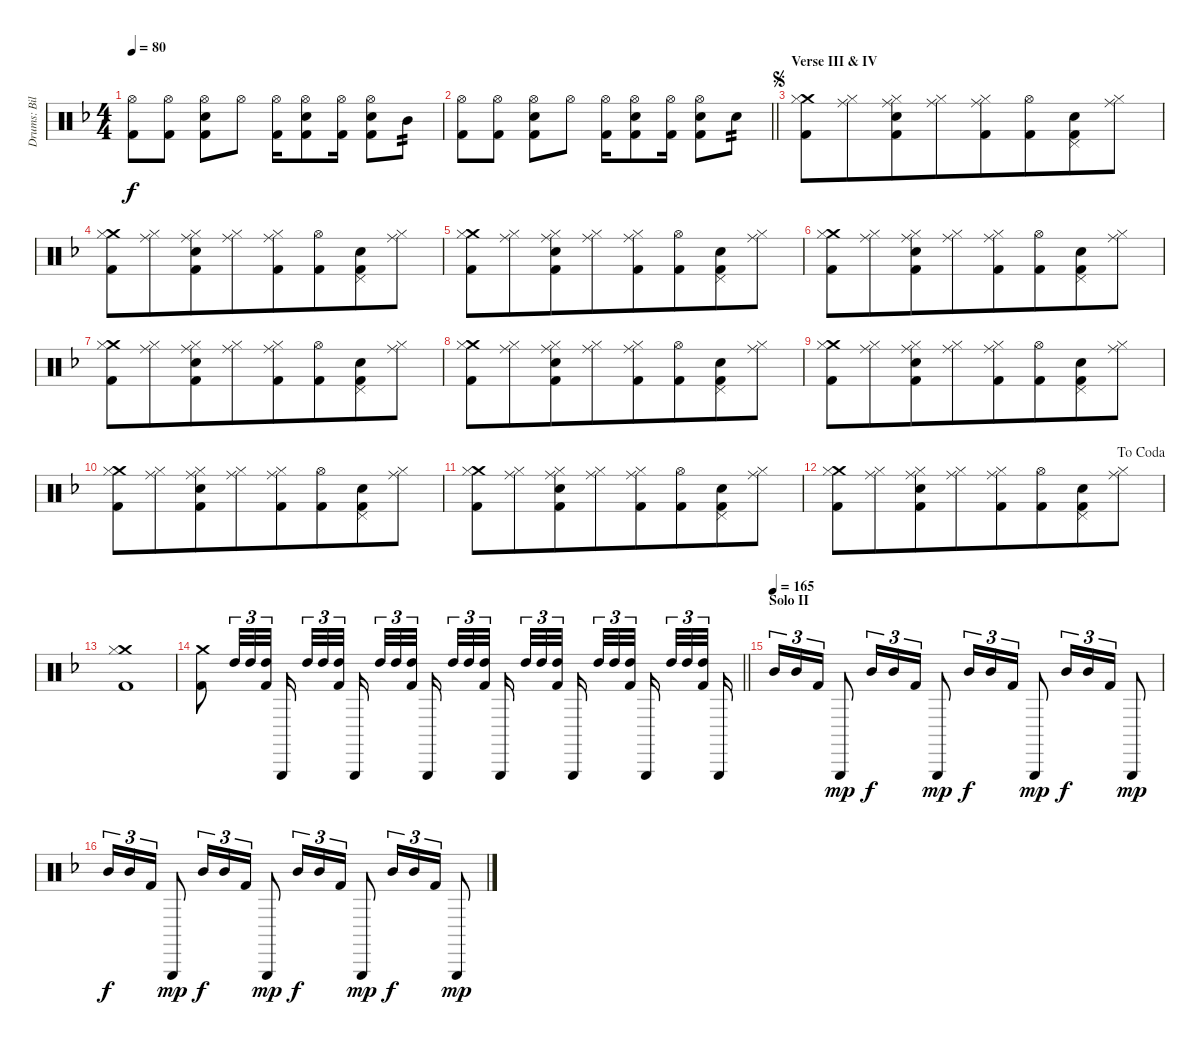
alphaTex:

\track ("Drums: Bill" "Drums: Bil") {instrument percussion}
\staff {score}
\articulation defaults
\ts (4 4)
\tempo 80
\clef neutral
\ks f
("Hi-Hat (open)" "Kick (hit) 2").8{dy f} ("Hi-Hat (open)" "Kick (hit) 2").8 ("Hi-Hat (open)" "Snare (hit) 2" "Kick (hit) 2").8 "Hi-Hat (open)".8 ("Hi-Hat (open)" "Kick (hit) 2").16 ("Hi-Hat (open)" "Snare (hit) 2" "Kick (hit) 2").8 ("Hi-Hat (open)" "Kick (hit) 2").16 ("Hi-Hat (open)" "Snare (hit) 2" "Kick (hit) 2").8 "Mid Tom (hit)".8{tp 2} |
\barLineRight lightlight
("Hi-Hat (open)" "Kick (hit) 2").8 ("Hi-Hat (open)" "Kick (hit) 2").8 ("Hi-Hat (open)" "Snare (hit) 2" "Kick (hit) 2").8 "Hi-Hat (open)".8 ("Hi-Hat (open)" "Kick (hit) 2").16 ("Hi-Hat (open)" "Snare (hit) 2" "Kick (hit) 2").8 ("Hi-Hat (open)" "Kick (hit) 2").16 ("Hi-Hat (open)" "Snare (hit) 2" "Kick (hit) 2").8 "Snare (hit) 2".8{tp 2} |
\section ("" "Verse III & IV")
\jump segno
("Crash medium (hit)" "Hi-Hat (closed)" "Kick (hit) 2").8 ("Ride (middle)" "Hi-Hat (closed)").8{beam merge} ("Ride (middle)" "Hi-Hat (closed)" "Snare (hit) 2" "Kick (hit) 2").8 ("Ride (middle)" "Hi-Hat (closed)").8{beam merge} ("Ride (middle)" "Hi-Hat (closed)" "Kick (hit) 2").8 ("Hi-Hat (open)" "Kick (hit) 2").8{beam merge} ("Pedal Hi-Hat (hit)" "Snare (hit) 2" "Kick (hit) 2").8 ("Ride (middle)" "Hi-Hat (closed)").8 |
("Crash medium (hit)" "Hi-Hat (closed)" "Kick (hit) 2").8 ("Ride (middle)" "Hi-Hat (closed)").8{beam merge} ("Ride (middle)" "Hi-Hat (closed)" "Snare (hit) 2" "Kick (hit) 2").8 ("Ride (middle)" "Hi-Hat (closed)").8{beam merge} ("Ride (middle)" "Hi-Hat (closed)" "Kick (hit) 2").8 ("Hi-Hat (open)" "Kick (hit) 2").8{beam merge} ("Pedal Hi-Hat (hit)" "Snare (hit) 2" "Kick (hit) 2").8 ("Ride (middle)" "Hi-Hat (closed)").8 |
("Crash medium (hit)" "Hi-Hat (closed)" "Kick (hit) 2").8 ("Ride (middle)" "Hi-Hat (closed)").8{beam merge} ("Ride (middle)" "Hi-Hat (closed)" "Snare (hit) 2" "Kick (hit) 2").8 ("Ride (middle)" "Hi-Hat (closed)").8{beam merge} ("Ride (middle)" "Hi-Hat (closed)" "Kick (hit) 2").8 ("Hi-Hat (open)" "Kick (hit) 2").8{beam merge} ("Pedal Hi-Hat (hit)" "Snare (hit) 2" "Kick (hit) 2").8 ("Ride (middle)" "Hi-Hat (closed)").8 |
("Crash medium (hit)" "Hi-Hat (closed)" "Kick (hit) 2").8 ("Ride (middle)" "Hi-Hat (closed)").8{beam merge} ("Ride (middle)" "Hi-Hat (closed)" "Snare (hit) 2" "Kick (hit) 2").8 ("Ride (middle)" "Hi-Hat (closed)").8{beam merge} ("Ride (middle)" "Hi-Hat (closed)" "Kick (hit) 2").8 ("Hi-Hat (open)" "Kick (hit) 2").8{beam merge} ("Pedal Hi-Hat (hit)" "Snare (hit) 2" "Kick (hit) 2").8 ("Ride (middle)" "Hi-Hat (closed)").8 |
("Crash medium (hit)" "Hi-Hat (closed)" "Kick (hit) 2").8 ("Ride (middle)" "Hi-Hat (closed)").8{beam merge} ("Ride (middle)" "Hi-Hat (closed)" "Snare (hit) 2" "Kick (hit) 2").8 ("Ride (middle)" "Hi-Hat (closed)").8{beam merge} ("Ride (middle)" "Hi-Hat (closed)" "Kick (hit) 2").8 ("Hi-Hat (open)" "Kick (hit) 2").8{beam merge} ("Pedal Hi-Hat (hit)" "Snare (hit) 2" "Kick (hit) 2").8 ("Ride (middle)" "Hi-Hat (closed)").8 |
("Crash medium (hit)" "Hi-Hat (closed)" "Kick (hit) 2").8 ("Ride (middle)" "Hi-Hat (closed)").8{beam merge} ("Ride (middle)" "Hi-Hat (closed)" "Snare (hit) 2" "Kick (hit) 2").8 ("Ride (middle)" "Hi-Hat (closed)").8{beam merge} ("Ride (middle)" "Hi-Hat (closed)" "Kick (hit) 2").8 ("Hi-Hat (open)" "Kick (hit) 2").8{beam merge} ("Pedal Hi-Hat (hit)" "Snare (hit) 2" "Kick (hit) 2").8 ("Ride (middle)" "Hi-Hat (closed)").8 |
("Crash medium (hit)" "Hi-Hat (closed)" "Kick (hit) 2").8 ("Ride (middle)" "Hi-Hat (closed)").8{beam merge} ("Ride (middle)" "Hi-Hat (closed)" "Snare (hit) 2" "Kick (hit) 2").8 ("Ride (middle)" "Hi-Hat (closed)").8{beam merge} ("Ride (middle)" "Hi-Hat (closed)" "Kick (hit) 2").8 ("Hi-Hat (open)" "Kick (hit) 2").8{beam merge} ("Pedal Hi-Hat (hit)" "Snare (hit) 2" "Kick (hit) 2").8 ("Ride (middle)" "Hi-Hat (closed)").8 |
("Crash medium (hit)" "Hi-Hat (closed)" "Kick (hit) 2").8 ("Ride (middle)" "Hi-Hat (closed)").8{beam merge} ("Ride (middle)" "Hi-Hat (closed)" "Snare (hit) 2" "Kick (hit) 2").8 ("Ride (middle)" "Hi-Hat (closed)").8{beam merge} ("Ride (middle)" "Hi-Hat (closed)" "Kick (hit) 2").8 ("Hi-Hat (open)" "Kick (hit) 2").8{beam merge} ("Pedal Hi-Hat (hit)" "Snare (hit) 2" "Kick (hit) 2").8 ("Ride (middle)" "Hi-Hat (closed)").8 |
("Crash medium (hit)" "Hi-Hat (closed)" "Kick (hit) 2").8 ("Ride (middle)" "Hi-Hat (closed)").8{beam merge} ("Ride (middle)" "Hi-Hat (closed)" "Snare (hit) 2" "Kick (hit) 2").8 ("Ride (middle)" "Hi-Hat (closed)").8{beam merge} ("Ride (middle)" "Hi-Hat (closed)" "Kick (hit) 2").8 ("Hi-Hat (open)" "Kick (hit) 2").8{beam merge} ("Pedal Hi-Hat (hit)" "Snare (hit) 2" "Kick (hit) 2").8 ("Ride (middle)" "Hi-Hat (closed)").8 |
\jump dacoda
("Crash medium (hit)" "Hi-Hat (closed)" "Kick (hit) 2").8 ("Ride (middle)" "Hi-Hat (closed)").8{beam merge} ("Ride (middle)" "Hi-Hat (closed)" "Snare (hit) 2" "Kick (hit) 2").8 ("Ride (middle)" "Hi-Hat (closed)").8{beam merge} ("Ride (middle)" "Hi-Hat (closed)" "Kick (hit) 2").8 ("Hi-Hat (open)" "Kick (hit) 2").8{beam merge} ("Pedal Hi-Hat (hit)" "Snare (hit) 2" "Kick (hit) 2").8 ("Ride (middle)" "Hi-Hat (closed)").8 |
("Crash medium (hit)" "Hi-Hat (closed)" "Kick (hit) 2").1 |
\barLineRight lightlight
("Crash medium (hit)" "Kick (hit) 2").8 "High Tom (hit)".32{tu (3 2)} "High Tom (hit)".32{tu (3 2)} ("High Tom (hit)" "Kick (hit) 2").32{tu (3 2) beam splitsecondary} "Triangle (hit)".16 "High Tom (hit)".32{tu (3 2)} "High Tom (hit)".32{tu (3 2)} ("High Tom (hit)" "Kick (hit) 2").32{tu (3 2) beam splitsecondary} "Triangle (hit)".16{beam splitsecondary} "High Tom (hit)".32{tu (3 2)} "High Tom (hit)".32{tu (3 2)} ("High Tom (hit)" "Kick (hit) 2").32{tu (3 2) beam splitsecondary} "Triangle (hit)".16 "High Tom (hit)".32{tu (3 2)} "High Tom (hit)".32{tu (3 2)} ("High Tom (hit)" "Kick (hit) 2").32{tu (3 2) beam splitsecondary} "Triangle (hit)".16{beam splitsecondary} "High Tom (hit)".32{tu (3 2)} "High Tom (hit)".32{tu (3 2)} ("High Tom (hit)" "Kick (hit) 2").32{tu (3 2) beam splitsecondary} "Triangle (hit)".16 "High Tom (hit)".32{tu (3 2)} "High Tom (hit)".32{tu (3 2)} ("High Tom (hit)" "Kick (hit) 2").32{tu (3 2) beam splitsecondary} "Triangle (hit)".16{beam splitsecondary} "High Tom (hit)".32{tu (3 2)} "High Tom (hit)".32{tu (3 2)} ("High Tom (hit)" "Kick (hit) 2").32{tu (3 2) beam splitsecondary} "Triangle (hit)".16 |
\section ("" "Solo II")
\tempo (165)
"Mid Tom (hit)".16{tu (3 2)} "Mid Tom (hit)".16{tu (3 2)} "Kick (hit) 2".16{tu (3 2)} "Triangle (hit)".8{dy mp} "Mid Tom (hit)".16{tu (3 2) dy f} "Mid Tom (hit)".16{tu (3 2)} "Kick (hit) 2".16{tu (3 2)} "Triangle (hit)".8{dy mp} "Mid Tom (hit)".16{tu (3 2) dy f} "Mid Tom (hit)".16{tu (3 2)} "Kick (hit) 2".16{tu (3 2)} "Triangle (hit)".8{dy mp} "Mid Tom (hit)".16{tu (3 2) dy f} "Mid Tom (hit)".16{tu (3 2)} "Kick (hit) 2".16{tu (3 2)} "Triangle (hit)".8{dy mp} |
"Mid Tom (hit)".16{tu (3 2) dy f} "Mid Tom (hit)".16{tu (3 2)} "Kick (hit) 2".16{tu (3 2)} "Triangle (hit)".8{dy mp} "Mid Tom (hit)".16{tu (3 2) dy f} "Mid Tom (hit)".16{tu (3 2)} "Kick (hit) 2".16{tu (3 2)} "Triangle (hit)".8{dy mp} "Mid Tom (hit)".16{tu (3 2) dy f} "Mid Tom (hit)".16{tu (3 2)} "Kick (hit) 2".16{tu (3 2)} "Triangle (hit)".8{dy mp} "Mid Tom (hit)".16{tu (3 2) dy f} "Mid Tom (hit)".16{tu (3 2)} "Kick (hit) 2".16{tu (3 2)} "Triangle (hit)".8{dy mp}
